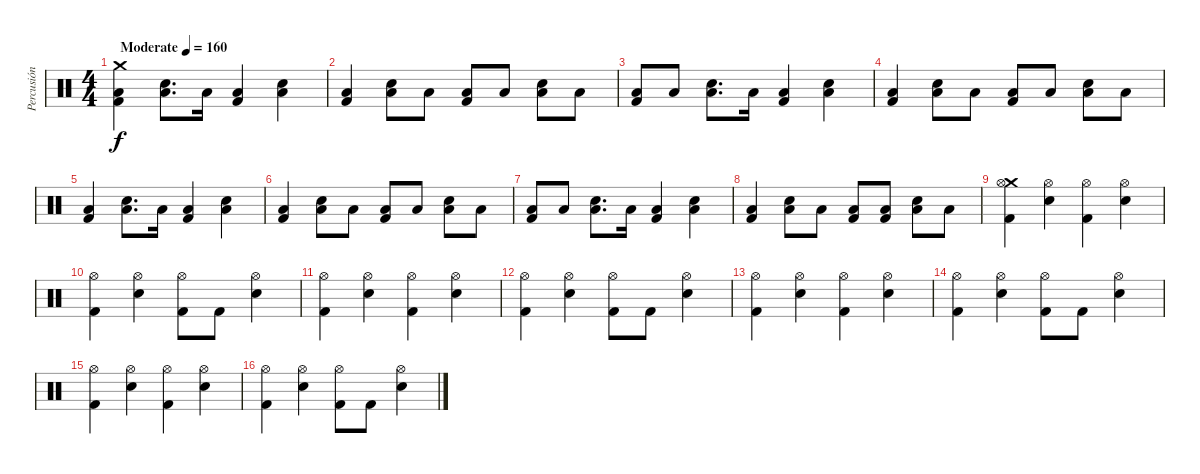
\track ("Percusión" "Percusión") {instrument percussion}
\staff {score}
\articulation defaults
\ts (4 4)
\tempo (160 "Moderate")
\clef neutral
\ks c
("Crash medium (hit)" "Low Floor Tom (hit)" "Kick (hit) 2").4{dy f} ("Snare (hit) 2" "Low Floor Tom (hit)").8{d} "Low Floor Tom (hit)".16 ("Low Floor Tom (hit)" "Kick (hit) 2").4 ("Snare (hit) 2" "Low Floor Tom (hit)").4 |
("Low Floor Tom (hit)" "Kick (hit) 2").4 ("Snare (hit) 2" "Low Floor Tom (hit)").8 "Low Floor Tom (hit)".8 ("Low Floor Tom (hit)" "Kick (hit) 2").8 "Low Floor Tom (hit)".8 ("Snare (hit) 2" "Low Floor Tom (hit)").8 "Low Floor Tom (hit)".8 |
("Low Floor Tom (hit)" "Kick (hit) 2").8 "Low Floor Tom (hit)".8 ("Snare (hit) 2" "Low Floor Tom (hit)").8{d} "Low Floor Tom (hit)".16 ("Low Floor Tom (hit)" "Kick (hit) 2").4 ("Snare (hit) 2" "Low Floor Tom (hit)").4 |
("Low Floor Tom (hit)" "Kick (hit) 2").4 ("Snare (hit) 2" "Low Floor Tom (hit)").8 "Low Floor Tom (hit)".8 ("Low Floor Tom (hit)" "Kick (hit) 2").8 "Low Floor Tom (hit)".8 ("Snare (hit) 2" "Low Floor Tom (hit)").8 "Low Floor Tom (hit)".8 |
("Low Floor Tom (hit)" "Kick (hit) 2").4 ("Snare (hit) 2" "Low Floor Tom (hit)").8{d} "Low Floor Tom (hit)".16 ("Low Floor Tom (hit)" "Kick (hit) 2").4 ("Snare (hit) 2" "Low Floor Tom (hit)").4 |
("Low Floor Tom (hit)" "Kick (hit) 2").4 ("Snare (hit) 2" "Low Floor Tom (hit)").8 "Low Floor Tom (hit)".8 ("Low Floor Tom (hit)" "Kick (hit) 2").8 "Low Floor Tom (hit)".8 ("Snare (hit) 2" "Low Floor Tom (hit)").8 "Low Floor Tom (hit)".8 |
("Low Floor Tom (hit)" "Kick (hit) 2").8 "Low Floor Tom (hit)".8 ("Snare (hit) 2" "Low Floor Tom (hit)").8{d} "Low Floor Tom (hit)".16 ("Low Floor Tom (hit)" "Kick (hit) 2").4 ("Snare (hit) 2" "Low Floor Tom (hit)").4 |
("Low Floor Tom (hit)" "Kick (hit) 2").4 ("Snare (hit) 2" "Low Floor Tom (hit)").8 "Low Floor Tom (hit)".8 ("Low Floor Tom (hit)" "Kick (hit) 2").8 ("Low Floor Tom (hit)" "Kick (hit) 2").8 ("Snare (hit) 2" "Low Floor Tom (hit)").8 "Low Floor Tom (hit)".8 |
("Crash medium (hit)" "Hi-Hat (open)" "Kick (hit) 2").4 ("Hi-Hat (open)" "Snare (hit) 2").4 ("Hi-Hat (open)" "Kick (hit) 2").4 ("Hi-Hat (open)" "Snare (hit) 2").4 |
("Hi-Hat (open)" "Kick (hit) 2").4 ("Hi-Hat (open)" "Snare (hit) 2").4 ("Hi-Hat (open)" "Kick (hit) 2").8 "Kick (hit) 2".8 ("Hi-Hat (open)" "Snare (hit) 2").4 |
("Hi-Hat (open)" "Kick (hit) 2").4 ("Hi-Hat (open)" "Snare (hit) 2").4 ("Hi-Hat (open)" "Kick (hit) 2").4 ("Hi-Hat (open)" "Snare (hit) 2").4 |
("Hi-Hat (open)" "Kick (hit) 2").4 ("Hi-Hat (open)" "Snare (hit) 2").4 ("Hi-Hat (open)" "Kick (hit) 2").8 "Kick (hit) 2".8 ("Hi-Hat (open)" "Snare (hit) 2").4 |
("Hi-Hat (open)" "Kick (hit) 2").4 ("Hi-Hat (open)" "Snare (hit) 2").4 ("Hi-Hat (open)" "Kick (hit) 2").4 ("Hi-Hat (open)" "Snare (hit) 2").4 |
("Hi-Hat (open)" "Kick (hit) 2").4 ("Hi-Hat (open)" "Snare (hit) 2").4 ("Hi-Hat (open)" "Kick (hit) 2").8 "Kick (hit) 2".8 ("Hi-Hat (open)" "Snare (hit) 2").4 |
("Hi-Hat (open)" "Kick (hit) 2").4 ("Hi-Hat (open)" "Snare (hit) 2").4 ("Hi-Hat (open)" "Kick (hit) 2").4 ("Hi-Hat (open)" "Snare (hit) 2").4 |
("Hi-Hat (open)" "Kick (hit) 2").4 ("Hi-Hat (open)" "Snare (hit) 2").4 ("Hi-Hat (open)" "Kick (hit) 2").8 "Kick (hit) 2".8 ("Hi-Hat (open)" "Snare (hit) 2").4
